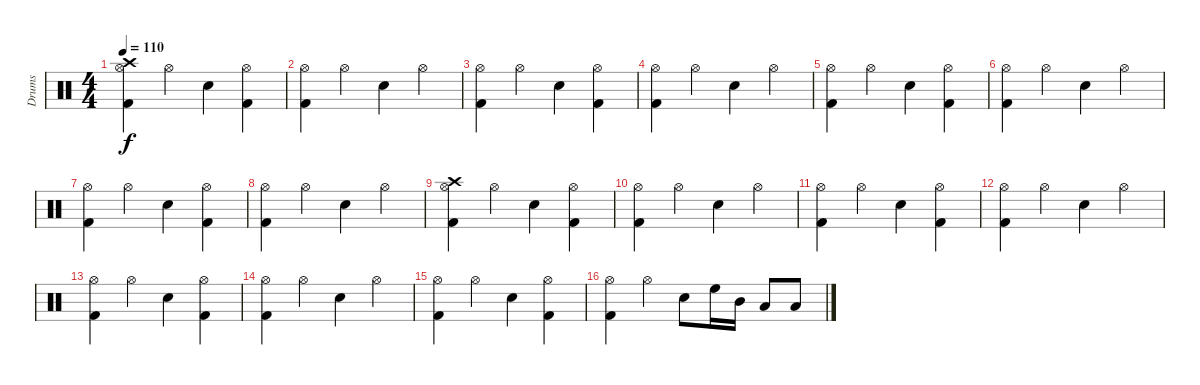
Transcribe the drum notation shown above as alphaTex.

\track ("Drums" "Drums") {instrument percussion}
\staff {score}
\articulation defaults
\ts (4 4)
\tempo 110
\clef neutral
\ks c
("Crash high (hit)" "Hi-Hat (open)" "Kick (hit) 2").4{dy f} "Hi-Hat (open)".4 "Snare (hit) 2".4 ("Hi-Hat (open)" "Kick (hit) 2").4 |
("Hi-Hat (open)" "Kick (hit) 2").4 "Hi-Hat (open)".4 "Snare (hit) 2".4 "Hi-Hat (open)".4 |
("Hi-Hat (open)" "Kick (hit) 2").4 "Hi-Hat (open)".4 "Snare (hit) 2".4 ("Hi-Hat (open)" "Kick (hit) 2").4 |
("Hi-Hat (open)" "Kick (hit) 2").4 "Hi-Hat (open)".4 "Snare (hit) 2".4 "Hi-Hat (open)".4 |
("Hi-Hat (open)" "Kick (hit) 2").4 "Hi-Hat (open)".4 "Snare (hit) 2".4 ("Hi-Hat (open)" "Kick (hit) 2").4 |
("Hi-Hat (open)" "Kick (hit) 2").4 "Hi-Hat (open)".4 "Snare (hit) 2".4 "Hi-Hat (open)".4 |
("Hi-Hat (open)" "Kick (hit) 2").4 "Hi-Hat (open)".4 "Snare (hit) 2".4 ("Hi-Hat (open)" "Kick (hit) 2").4 |
("Hi-Hat (open)" "Kick (hit) 2").4 "Hi-Hat (open)".4 "Snare (hit) 2".4 "Hi-Hat (open)".4 |
("Crash high (hit)" "Hi-Hat (open)" "Kick (hit) 2").4 "Hi-Hat (open)".4 "Snare (hit) 2".4 ("Hi-Hat (open)" "Kick (hit) 2").4 |
("Hi-Hat (open)" "Kick (hit) 2").4 "Hi-Hat (open)".4 "Snare (hit) 2".4 "Hi-Hat (open)".4 |
("Hi-Hat (open)" "Kick (hit) 2").4 "Hi-Hat (open)".4 "Snare (hit) 2".4 ("Hi-Hat (open)" "Kick (hit) 2").4 |
("Hi-Hat (open)" "Kick (hit) 2").4 "Hi-Hat (open)".4 "Snare (hit) 2".4 "Hi-Hat (open)".4 |
("Hi-Hat (open)" "Kick (hit) 2").4 "Hi-Hat (open)".4 "Snare (hit) 2".4 ("Hi-Hat (open)" "Kick (hit) 2").4 |
("Hi-Hat (open)" "Kick (hit) 2").4 "Hi-Hat (open)".4 "Snare (hit) 2".4 "Hi-Hat (open)".4 |
("Hi-Hat (open)" "Kick (hit) 2").4 "Hi-Hat (open)".4 "Snare (hit) 2".4 ("Hi-Hat (open)" "Kick (hit) 2").4 |
("Hi-Hat (open)" "Kick (hit) 2").4 "Hi-Hat (open)".4 "Snare (hit) 2".8 "High Floor Tom (hit)".16 "Mid Tom (hit)".16 "Low Tom (hit)".8 "Low Tom (hit)".8
